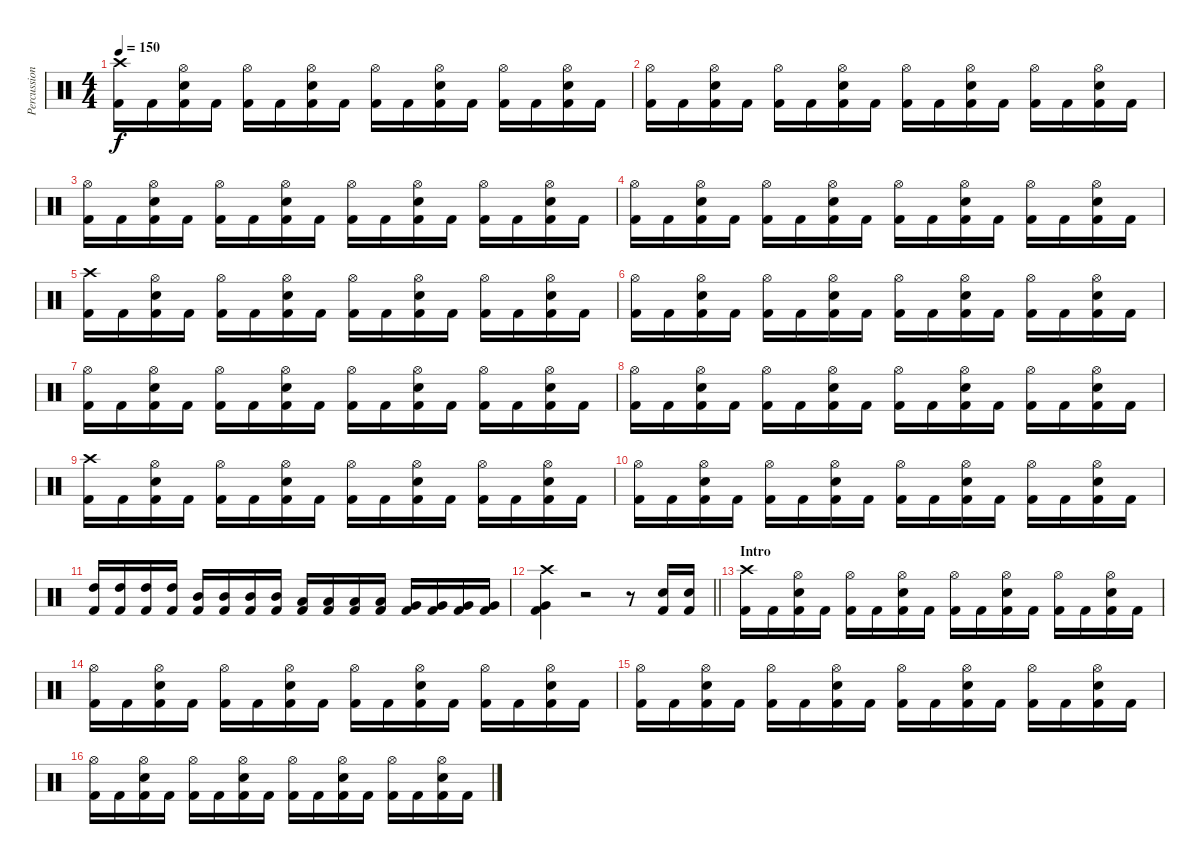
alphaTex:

\track ("Percussion" "Percussion") {instrument percussion}
\staff {score}
\articulation defaults
\ts (4 4)
\tempo 150
\clef neutral
\ks c
("Crash high (hit)" "Kick (hit) 2").16{dy f} "Kick (hit) 2".16 ("Hi-Hat (open)" "Snare (hit) 2" "Kick (hit) 2").16 "Kick (hit) 2".16 ("Hi-Hat (open)" "Kick (hit) 2").16 "Kick (hit) 2".16 ("Hi-Hat (open)" "Snare (hit) 2" "Kick (hit) 2").16 "Kick (hit) 2".16 ("Hi-Hat (open)" "Kick (hit) 2").16 "Kick (hit) 2".16 ("Hi-Hat (open)" "Snare (hit) 2" "Kick (hit) 2").16 "Kick (hit) 2".16 ("Hi-Hat (open)" "Kick (hit) 2").16 "Kick (hit) 2".16 ("Hi-Hat (open)" "Snare (hit) 2" "Kick (hit) 2").16 "Kick (hit) 2".16 |
("Hi-Hat (open)" "Kick (hit) 2").16 "Kick (hit) 2".16 ("Hi-Hat (open)" "Snare (hit) 2" "Kick (hit) 2").16 "Kick (hit) 2".16 ("Hi-Hat (open)" "Kick (hit) 2").16 "Kick (hit) 2".16 ("Hi-Hat (open)" "Snare (hit) 2" "Kick (hit) 2").16 "Kick (hit) 2".16 ("Hi-Hat (open)" "Kick (hit) 2").16 "Kick (hit) 2".16 ("Hi-Hat (open)" "Snare (hit) 2" "Kick (hit) 2").16 "Kick (hit) 2".16 ("Hi-Hat (open)" "Kick (hit) 2").16 "Kick (hit) 2".16 ("Hi-Hat (open)" "Snare (hit) 2" "Kick (hit) 2").16 "Kick (hit) 2".16 |
("Hi-Hat (open)" "Kick (hit) 2").16 "Kick (hit) 2".16 ("Hi-Hat (open)" "Snare (hit) 2" "Kick (hit) 2").16 "Kick (hit) 2".16 ("Hi-Hat (open)" "Kick (hit) 2").16 "Kick (hit) 2".16 ("Hi-Hat (open)" "Snare (hit) 2" "Kick (hit) 2").16 "Kick (hit) 2".16 ("Hi-Hat (open)" "Kick (hit) 2").16 "Kick (hit) 2".16 ("Hi-Hat (open)" "Snare (hit) 2" "Kick (hit) 2").16 "Kick (hit) 2".16 ("Hi-Hat (open)" "Kick (hit) 2").16 "Kick (hit) 2".16 ("Hi-Hat (open)" "Snare (hit) 2" "Kick (hit) 2").16 "Kick (hit) 2".16 |
("Hi-Hat (open)" "Kick (hit) 2").16 "Kick (hit) 2".16 ("Hi-Hat (open)" "Snare (hit) 2" "Kick (hit) 2").16 "Kick (hit) 2".16 ("Hi-Hat (open)" "Kick (hit) 2").16 "Kick (hit) 2".16 ("Hi-Hat (open)" "Snare (hit) 2" "Kick (hit) 2").16 "Kick (hit) 2".16 ("Hi-Hat (open)" "Kick (hit) 2").16 "Kick (hit) 2".16 ("Hi-Hat (open)" "Snare (hit) 2" "Kick (hit) 2").16 "Kick (hit) 2".16 ("Hi-Hat (open)" "Kick (hit) 2").16 "Kick (hit) 2".16 ("Hi-Hat (open)" "Snare (hit) 2" "Kick (hit) 2").16 "Kick (hit) 2".16 |
("Crash high (hit)" "Kick (hit) 2").16 "Kick (hit) 2".16 ("Hi-Hat (open)" "Snare (hit) 2" "Kick (hit) 2").16 "Kick (hit) 2".16 ("Hi-Hat (open)" "Kick (hit) 2").16 "Kick (hit) 2".16 ("Hi-Hat (open)" "Snare (hit) 2" "Kick (hit) 2").16 "Kick (hit) 2".16 ("Hi-Hat (open)" "Kick (hit) 2").16 "Kick (hit) 2".16 ("Hi-Hat (open)" "Snare (hit) 2" "Kick (hit) 2").16 "Kick (hit) 2".16 ("Hi-Hat (open)" "Kick (hit) 2").16 "Kick (hit) 2".16 ("Hi-Hat (open)" "Snare (hit) 2" "Kick (hit) 2").16 "Kick (hit) 2".16 |
("Hi-Hat (open)" "Kick (hit) 2").16 "Kick (hit) 2".16 ("Hi-Hat (open)" "Snare (hit) 2" "Kick (hit) 2").16 "Kick (hit) 2".16 ("Hi-Hat (open)" "Kick (hit) 2").16 "Kick (hit) 2".16 ("Hi-Hat (open)" "Snare (hit) 2" "Kick (hit) 2").16 "Kick (hit) 2".16 ("Hi-Hat (open)" "Kick (hit) 2").16 "Kick (hit) 2".16 ("Hi-Hat (open)" "Snare (hit) 2" "Kick (hit) 2").16 "Kick (hit) 2".16 ("Hi-Hat (open)" "Kick (hit) 2").16 "Kick (hit) 2".16 ("Hi-Hat (open)" "Snare (hit) 2" "Kick (hit) 2").16 "Kick (hit) 2".16 |
("Hi-Hat (open)" "Kick (hit) 2").16 "Kick (hit) 2".16 ("Hi-Hat (open)" "Snare (hit) 2" "Kick (hit) 2").16 "Kick (hit) 2".16 ("Hi-Hat (open)" "Kick (hit) 2").16 "Kick (hit) 2".16 ("Hi-Hat (open)" "Snare (hit) 2" "Kick (hit) 2").16 "Kick (hit) 2".16 ("Hi-Hat (open)" "Kick (hit) 2").16 "Kick (hit) 2".16 ("Hi-Hat (open)" "Snare (hit) 2" "Kick (hit) 2").16 "Kick (hit) 2".16 ("Hi-Hat (open)" "Kick (hit) 2").16 "Kick (hit) 2".16 ("Hi-Hat (open)" "Snare (hit) 2" "Kick (hit) 2").16 "Kick (hit) 2".16 |
("Hi-Hat (open)" "Kick (hit) 2").16 "Kick (hit) 2".16 ("Hi-Hat (open)" "Snare (hit) 2" "Kick (hit) 2").16 "Kick (hit) 2".16 ("Hi-Hat (open)" "Kick (hit) 2").16 "Kick (hit) 2".16 ("Hi-Hat (open)" "Snare (hit) 2" "Kick (hit) 2").16 "Kick (hit) 2".16 ("Hi-Hat (open)" "Kick (hit) 2").16 "Kick (hit) 2".16 ("Hi-Hat (open)" "Snare (hit) 2" "Kick (hit) 2").16 "Kick (hit) 2".16 ("Hi-Hat (open)" "Kick (hit) 2").16 "Kick (hit) 2".16 ("Hi-Hat (open)" "Snare (hit) 2" "Kick (hit) 2").16 "Kick (hit) 2".16 |
("Crash high (hit)" "Kick (hit) 2").16 "Kick (hit) 2".16 ("Hi-Hat (open)" "Snare (hit) 2" "Kick (hit) 2").16 "Kick (hit) 2".16 ("Hi-Hat (open)" "Kick (hit) 2").16 "Kick (hit) 2".16 ("Hi-Hat (open)" "Snare (hit) 2" "Kick (hit) 2").16 "Kick (hit) 2".16 ("Hi-Hat (open)" "Kick (hit) 2").16 "Kick (hit) 2".16 ("Hi-Hat (open)" "Snare (hit) 2" "Kick (hit) 2").16 "Kick (hit) 2".16 ("Hi-Hat (open)" "Kick (hit) 2").16 "Kick (hit) 2".16 ("Hi-Hat (open)" "Snare (hit) 2" "Kick (hit) 2").16 "Kick (hit) 2".16 |
("Hi-Hat (open)" "Kick (hit) 2").16 "Kick (hit) 2".16 ("Hi-Hat (open)" "Snare (hit) 2" "Kick (hit) 2").16 "Kick (hit) 2".16 ("Hi-Hat (open)" "Kick (hit) 2").16 "Kick (hit) 2".16 ("Hi-Hat (open)" "Snare (hit) 2" "Kick (hit) 2").16 "Kick (hit) 2".16 ("Hi-Hat (open)" "Kick (hit) 2").16 "Kick (hit) 2".16 ("Hi-Hat (open)" "Snare (hit) 2" "Kick (hit) 2").16 "Kick (hit) 2".16 ("Hi-Hat (open)" "Kick (hit) 2").16 "Kick (hit) 2".16 ("Hi-Hat (open)" "Snare (hit) 2" "Kick (hit) 2").16 "Kick (hit) 2".16 |
("High Tom (hit)" "Kick (hit) 2").16 ("High Tom (hit)" "Kick (hit) 2").16 ("High Tom (hit)" "Kick (hit) 2").16 ("High Tom (hit)" "Kick (hit) 2").16 ("Mid Tom (hit)" "Kick (hit) 2").16 ("Mid Tom (hit)" "Kick (hit) 2").16 ("Mid Tom (hit)" "Kick (hit) 2").16 ("Mid Tom (hit)" "Kick (hit) 2").16 ("Low Tom (hit)" "Kick (hit) 2").16 ("Low Tom (hit)" "Kick (hit) 2").16 ("Low Tom (hit)" "Kick (hit) 2").16 ("Low Tom (hit)" "Kick (hit) 2").16 ("Very Low Tom (hit)" "Kick (hit) 2").16 ("Very Low Tom (hit)" "Kick (hit) 2").16 ("Very Low Tom (hit)" "Kick (hit) 2").16 ("Very Low Tom (hit)" "Kick (hit) 2").16 |
\barLineRight lightlight
("Crash high (hit)" "Very Low Tom (hit)" "Kick (hit) 2").4 r.2 r.8 ("Snare (hit) 2" "Kick (hit) 2").16 ("Snare (hit) 2" "Kick (hit) 2").16 |
\section ("" "Intro")
("Crash high (hit)" "Kick (hit) 2").16 "Kick (hit) 2".16 ("Hi-Hat (open)" "Snare (hit) 2" "Kick (hit) 2").16 "Kick (hit) 2".16 ("Hi-Hat (open)" "Kick (hit) 2").16 "Kick (hit) 2".16 ("Hi-Hat (open)" "Snare (hit) 2" "Kick (hit) 2").16 "Kick (hit) 2".16 ("Hi-Hat (open)" "Kick (hit) 2").16 "Kick (hit) 2".16 ("Hi-Hat (open)" "Snare (hit) 2" "Kick (hit) 2").16 "Kick (hit) 2".16 ("Hi-Hat (open)" "Kick (hit) 2").16 "Kick (hit) 2".16 ("Hi-Hat (open)" "Snare (hit) 2" "Kick (hit) 2").16 "Kick (hit) 2".16 |
("Hi-Hat (open)" "Kick (hit) 2").16 "Kick (hit) 2".16 ("Hi-Hat (open)" "Snare (hit) 2" "Kick (hit) 2").16 "Kick (hit) 2".16 ("Hi-Hat (open)" "Kick (hit) 2").16 "Kick (hit) 2".16 ("Hi-Hat (open)" "Snare (hit) 2" "Kick (hit) 2").16 "Kick (hit) 2".16 ("Hi-Hat (open)" "Kick (hit) 2").16 "Kick (hit) 2".16 ("Hi-Hat (open)" "Snare (hit) 2" "Kick (hit) 2").16 "Kick (hit) 2".16 ("Hi-Hat (open)" "Kick (hit) 2").16 "Kick (hit) 2".16 ("Hi-Hat (open)" "Snare (hit) 2" "Kick (hit) 2").16 "Kick (hit) 2".16 |
("Hi-Hat (open)" "Kick (hit) 2").16 "Kick (hit) 2".16 ("Hi-Hat (open)" "Snare (hit) 2" "Kick (hit) 2").16 "Kick (hit) 2".16 ("Hi-Hat (open)" "Kick (hit) 2").16 "Kick (hit) 2".16 ("Hi-Hat (open)" "Snare (hit) 2" "Kick (hit) 2").16 "Kick (hit) 2".16 ("Hi-Hat (open)" "Kick (hit) 2").16 "Kick (hit) 2".16 ("Hi-Hat (open)" "Snare (hit) 2" "Kick (hit) 2").16 "Kick (hit) 2".16 ("Hi-Hat (open)" "Kick (hit) 2").16 "Kick (hit) 2".16 ("Hi-Hat (open)" "Snare (hit) 2" "Kick (hit) 2").16 "Kick (hit) 2".16 |
("Hi-Hat (open)" "Kick (hit) 2").16 "Kick (hit) 2".16 ("Hi-Hat (open)" "Snare (hit) 2" "Kick (hit) 2").16 "Kick (hit) 2".16 ("Hi-Hat (open)" "Kick (hit) 2").16 "Kick (hit) 2".16 ("Hi-Hat (open)" "Snare (hit) 2" "Kick (hit) 2").16 "Kick (hit) 2".16 ("Hi-Hat (open)" "Kick (hit) 2").16 "Kick (hit) 2".16 ("Hi-Hat (open)" "Snare (hit) 2" "Kick (hit) 2").16 "Kick (hit) 2".16 ("Hi-Hat (open)" "Kick (hit) 2").16 "Kick (hit) 2".16 ("Hi-Hat (open)" "Snare (hit) 2" "Kick (hit) 2").16 "Kick (hit) 2".16
